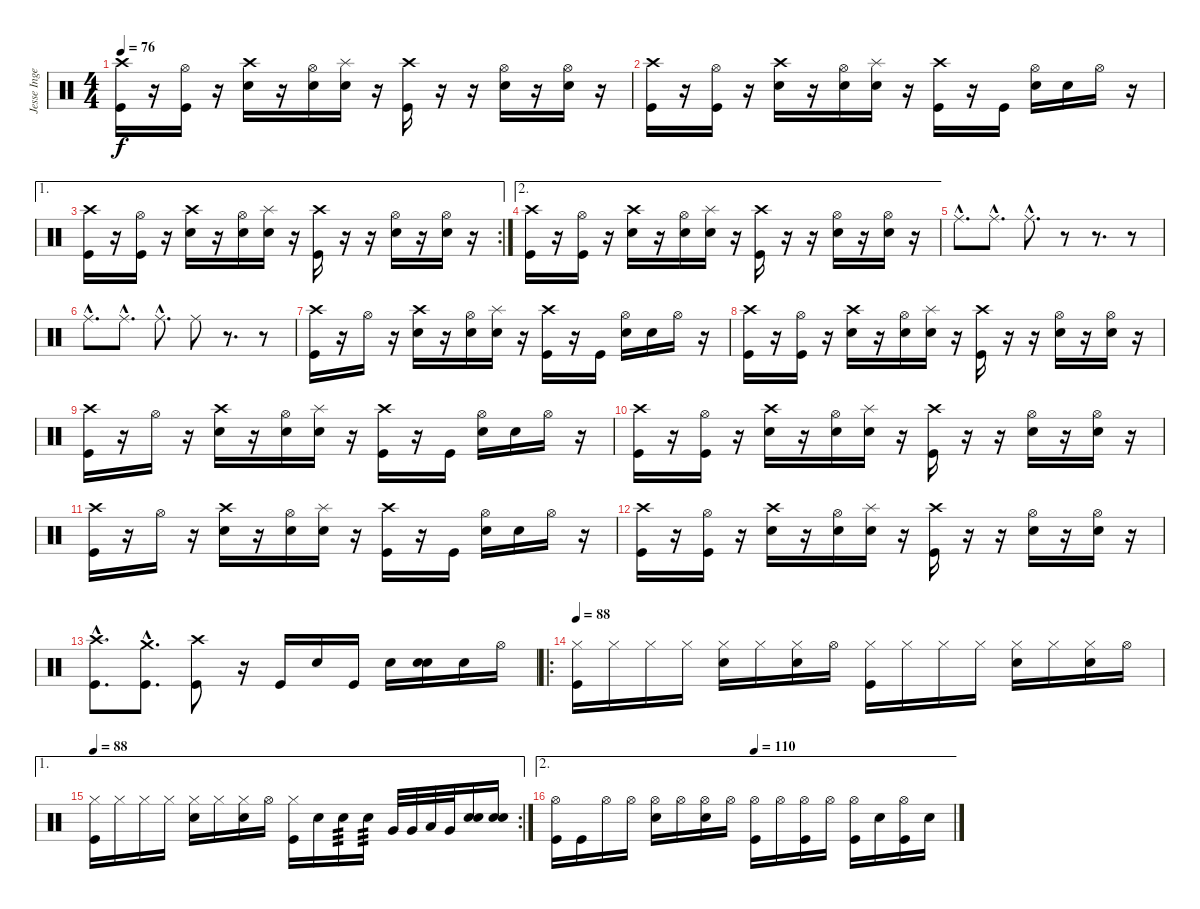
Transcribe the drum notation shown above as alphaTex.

\track ("Jesse Ingelevics" "Jesse Inge") {instrument percussion}
\staff {score}
\articulation defaults
\ts (4 4)
\tempo 76
\clef neutral
\ks c
("Crash high (hit)" "Kick (hit)").16{dy f} r.16 ("Hi-Hat (open)" "Kick (hit)").16 r.16 ("Crash high (hit)" "Electric Snare (hit)").16 r.16 ("Hi-Hat (open)" "Electric Snare (hit)").16 ("Splash (hit)" "Electric Snare (hit)").16 r.16 ("Crash high (hit)" "Kick (hit)").16 r.16 r.16 ("Hi-Hat (open)" "Electric Snare (hit)").16 r.16 ("Hi-Hat (open)" "Electric Snare (hit)").16 r.16 |
("Crash high (hit)" "Kick (hit)").16 r.16 ("Hi-Hat (open)" "Kick (hit)").16 r.16 ("Crash high (hit)" "Electric Snare (hit)").16 r.16 ("Hi-Hat (open)" "Electric Snare (hit)").16 ("Splash (hit)" "Electric Snare (hit)").16 r.16 ("Crash high (hit)" "Kick (hit)").16 r.16 "Kick (hit)".16 ("Hi-Hat (open)" "Electric Snare (hit)").16 "Electric Snare (hit)".16 "Hi-Hat (open)".16 r.16 |
\ae 1
\rc 2
("Crash high (hit)" "Kick (hit)").16 r.16 ("Hi-Hat (open)" "Kick (hit)").16 r.16 ("Crash high (hit)" "Electric Snare (hit)").16 r.16 ("Hi-Hat (open)" "Electric Snare (hit)").16 ("Splash (hit)" "Electric Snare (hit)").16 r.16 ("Crash high (hit)" "Kick (hit)").16 r.16 r.16 ("Hi-Hat (open)" "Electric Snare (hit)").16 r.16 ("Hi-Hat (open)" "Electric Snare (hit)").16 r.16 |
\ae 2
("Crash high (hit)" "Kick (hit)").16 r.16 ("Hi-Hat (open)" "Kick (hit)").16 r.16 ("Crash high (hit)" "Electric Snare (hit)").16 r.16 ("Hi-Hat (open)" "Electric Snare (hit)").16 ("Splash (hit)" "Electric Snare (hit)").16 r.16 ("Crash high (hit)" "Kick (hit)").16 r.16 r.16 ("Hi-Hat (open)" "Electric Snare (hit)").16 r.16 ("Hi-Hat (open)" "Electric Snare (hit)").16 r.16 |
"Ride (middle)"{hac}.8{d} "Ride (middle)"{hac}.8{d} "Ride (middle)"{hac}.8{d} r.8 r.8{d} r.8 |
"Ride (middle)"{hac}.8{d} "Ride (middle)"{hac}.8{d} "Ride (middle)"{hac}.8{d} "Ride (middle)".8 r.8{d} r.8 |
("Crash high (hit)" "Kick (hit)").16 r.16 "Hi-Hat (open)".16 r.16 ("Crash high (hit)" "Electric Snare (hit)").16 r.16 ("Hi-Hat (open)" "Electric Snare (hit)").16 ("Splash (hit)" "Electric Snare (hit)").16 r.16 ("Crash high (hit)" "Kick (hit)").16 r.16 "Kick (hit)".16 ("Hi-Hat (open)" "Electric Snare (hit)").16 "Electric Snare (hit)".16 "Hi-Hat (open)".16 r.16 |
("Crash high (hit)" "Kick (hit)").16 r.16 ("Hi-Hat (open)" "Kick (hit)").16 r.16 ("Crash high (hit)" "Electric Snare (hit)").16 r.16 ("Hi-Hat (open)" "Electric Snare (hit)").16 ("Splash (hit)" "Electric Snare (hit)").16 r.16 ("Crash high (hit)" "Kick (hit)").16 r.16 r.16 ("Hi-Hat (open)" "Electric Snare (hit)").16 r.16 ("Hi-Hat (open)" "Electric Snare (hit)").16 r.16 |
("Crash high (hit)" "Kick (hit)").16 r.16 "Hi-Hat (open)".16 r.16 ("Crash high (hit)" "Electric Snare (hit)").16 r.16 ("Hi-Hat (open)" "Electric Snare (hit)").16 ("Splash (hit)" "Electric Snare (hit)").16 r.16 ("Crash high (hit)" "Kick (hit)").16 r.16 "Kick (hit)".16 ("Hi-Hat (open)" "Electric Snare (hit)").16 "Electric Snare (hit)".16 "Hi-Hat (open)".16 r.16 |
("Crash high (hit)" "Kick (hit)").16 r.16 ("Hi-Hat (open)" "Kick (hit)").16 r.16 ("Crash high (hit)" "Electric Snare (hit)").16 r.16 ("Hi-Hat (open)" "Electric Snare (hit)").16 ("Splash (hit)" "Electric Snare (hit)").16 r.16 ("Crash high (hit)" "Kick (hit)").16 r.16 r.16 ("Hi-Hat (open)" "Electric Snare (hit)").16 r.16 ("Hi-Hat (open)" "Electric Snare (hit)").16 r.16 |
("Crash high (hit)" "Kick (hit)").16 r.16 "Hi-Hat (open)".16 r.16 ("Crash high (hit)" "Electric Snare (hit)").16 r.16 ("Hi-Hat (open)" "Electric Snare (hit)").16 ("Splash (hit)" "Electric Snare (hit)").16 r.16 ("Crash high (hit)" "Kick (hit)").16 r.16 "Kick (hit)".16 ("Hi-Hat (open)" "Electric Snare (hit)").16 "Electric Snare (hit)".16 "Hi-Hat (open)".16 r.16 |
("Crash high (hit)" "Kick (hit)").16 r.16 ("Hi-Hat (open)" "Kick (hit)").16 r.16 ("Crash high (hit)" "Electric Snare (hit)").16 r.16 ("Hi-Hat (open)" "Electric Snare (hit)").16 ("Splash (hit)" "Electric Snare (hit)").16 r.16 ("Crash high (hit)" "Kick (hit)").16 r.16 r.16 ("Hi-Hat (open)" "Electric Snare (hit)").16 r.16 ("Hi-Hat (open)" "Electric Snare (hit)").16 r.16 |
("Crash high (hit)"{hac} "Kick (hit)"{hac}).8{d} ("Crash medium (hit)"{hac} "Kick (hit)"{hac}).8{d} ("Crash high (hit)" "Kick (hit)").8 r.16 "Kick (hit)".16 "Electric Snare (hit)".16 "Kick (hit)".16 "Electric Snare (hit)".16 ("Electric Snare (hit)" "Electric Snare (hit)").16{bu 480} "Electric Snare (hit)".16 "Hi-Hat (open)".16 |
\ro
\tempo 88
("Hi-Hat (closed)" "Kick (hit)").16 "Hi-Hat (closed)".16 "Hi-Hat (closed)".16 "Hi-Hat (closed)".16 ("Hi-Hat (closed)" "Electric Snare (hit)").16 "Hi-Hat (closed)".16 ("Hi-Hat (closed)" "Electric Snare (hit)").16 "Hi-Hat (open)".16 ("Hi-Hat (closed)" "Kick (hit)").16 "Hi-Hat (closed)".16 "Hi-Hat (closed)".16 "Hi-Hat (closed)".16 ("Hi-Hat (closed)" "Electric Snare (hit)").16 "Hi-Hat (closed)".16 ("Hi-Hat (closed)" "Electric Snare (hit)").16 "Hi-Hat (open)".16 |
\ae 1
\rc 2
\tempo 88
("Hi-Hat (closed)" "Kick (hit)").16 "Hi-Hat (closed)".16 "Hi-Hat (closed)".16 "Hi-Hat (closed)".16 ("Hi-Hat (closed)" "Electric Snare (hit)").16 "Hi-Hat (closed)".16 ("Hi-Hat (closed)" "Electric Snare (hit)").16 "Hi-Hat (open)".16 ("Hi-Hat (closed)" "Kick (hit)").16 "Electric Snare (hit)".16 "Electric Snare (hit)".16{tp 3} "Electric Snare (hit)".16{tp 3} "Very Low Tom (hit)".32 "Very Low Tom (hit)".32 "Low Tom (hit)".32 "Very Low Tom (hit)".32 ("Electric Snare (hit)" "Electric Snare (hit)").16{bu 480} ("Electric Snare (hit)" "Electric Snare (hit)").16{bu 480} |
\ae 2
\tempo (110 0.5)
("Hi-Hat (open)" "Kick (hit)").16 "Kick (hit)".16 "Hi-Hat (open)".16 "Hi-Hat (open)".16 ("Hi-Hat (open)" "Electric Snare (hit)").16 "Hi-Hat (open)".16 ("Hi-Hat (open)" "Electric Snare (hit)").16 "Hi-Hat (open)".16 ("Hi-Hat (open)" "Kick (hit)").16 "Hi-Hat (open)".16 ("Hi-Hat (open)" "Kick (hit)").16 "Hi-Hat (open)".16 ("Hi-Hat (open)" "Kick (hit)").16 "Electric Snare (hit)".16 ("Hi-Hat (open)" "Kick (hit)").16 "Electric Snare (hit)".16
